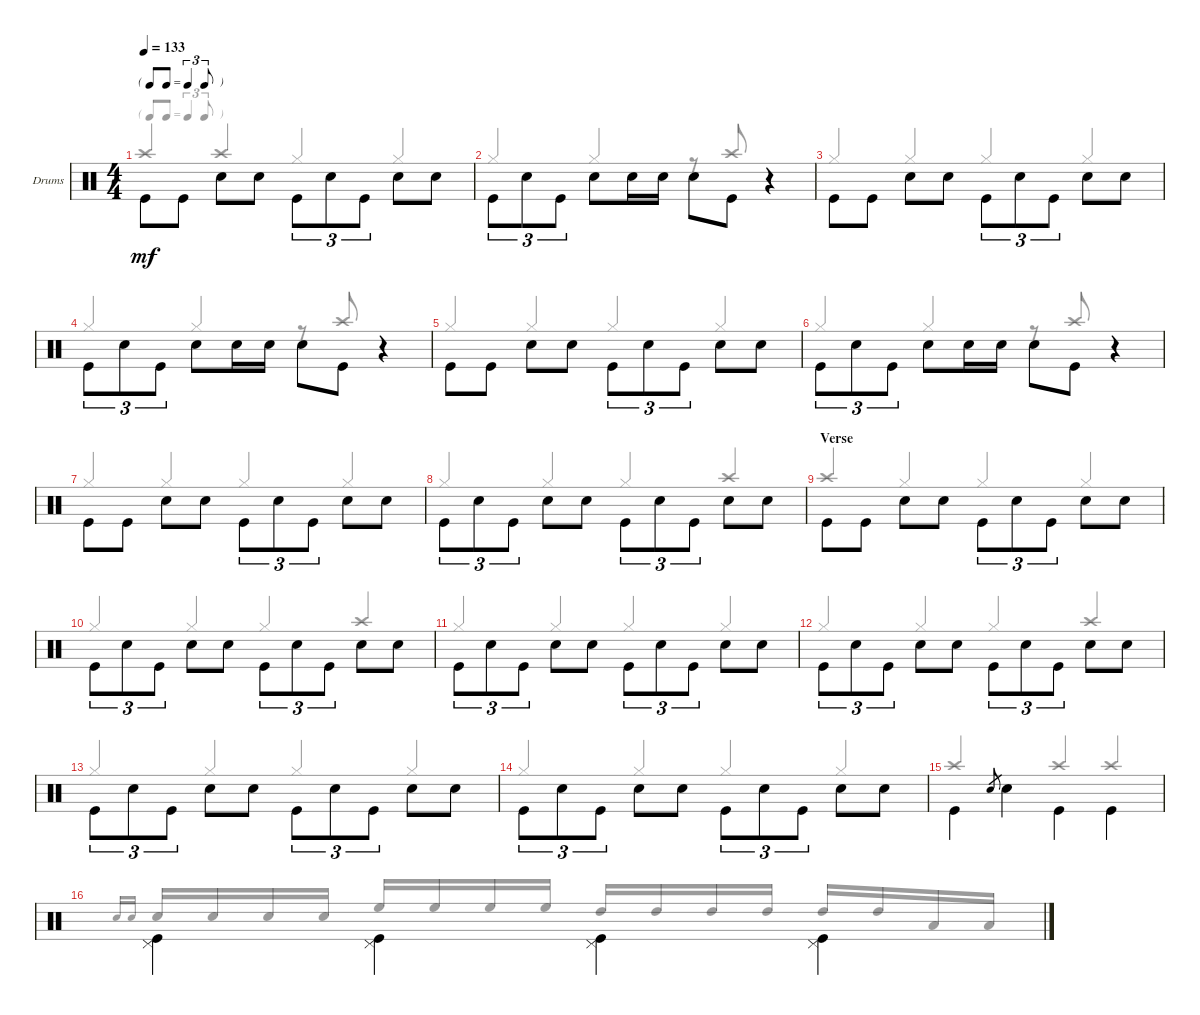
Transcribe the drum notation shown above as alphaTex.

\defaultSystemsLayout 4
\bracketExtendMode groupsimilarinstruments
\firstSystemTrackNameOrientation horizontal
\otherSystemsTrackNameOrientation horizontal
\track ("PETER CRISS" "Drums") {solo instrument percussion}
\staff {score}
\articulation defaults
\voice
\ts (4 4)
\tf triplet8th
\tempo 133
\clef neutral
\ks c "Kick (hit)".8{dy mf beam invert} "Kick (hit)".8 "Snare (hit) 2".8{beam invert} "Snare (hit) 2".8 "Kick (hit)".8{tu (3 2) beam invert} "Snare (hit) 2".8{tu (3 2)} "Kick (hit)".8{tu (3 2)} "Snare (hit) 2".8{beam invert} "Snare (hit) 2".8
|
"Kick (hit)".8{tu (3 2) beam invert} "Snare (hit) 2".8{tu (3 2)} "Kick (hit)".8{tu (3 2)} "Snare (hit) 2".8{beam invert} "Snare (hit) 2".16 "Snare (hit) 2".16 "Snare (hit) 2".8{beam invert} "Kick (hit)".8 r.4 |
"Kick (hit)".8{beam invert} "Kick (hit)".8 "Snare (hit) 2".8{beam invert} "Snare (hit) 2".8 "Kick (hit)".8{tu (3 2) beam invert} "Snare (hit) 2".8{tu (3 2)} "Kick (hit)".8{tu (3 2)} "Snare (hit) 2".8{beam invert} "Snare (hit) 2".8 |
"Kick (hit)".8{tu (3 2) beam invert} "Snare (hit) 2".8{tu (3 2)} "Kick (hit)".8{tu (3 2)} "Snare (hit) 2".8{beam invert} "Snare (hit) 2".16 "Snare (hit) 2".16 "Snare (hit) 2".8{beam invert} "Kick (hit)".8 r.4 |
"Kick (hit)".8{beam invert} "Kick (hit)".8 "Snare (hit) 2".8{beam invert} "Snare (hit) 2".8 "Kick (hit)".8{tu (3 2) beam invert} "Snare (hit) 2".8{tu (3 2)} "Kick (hit)".8{tu (3 2)} "Snare (hit) 2".8{beam invert} "Snare (hit) 2".8 |
"Kick (hit)".8{tu (3 2) beam invert} "Snare (hit) 2".8{tu (3 2)} "Kick (hit)".8{tu (3 2)} "Snare (hit) 2".8{beam invert} "Snare (hit) 2".16 "Snare (hit) 2".16 "Snare (hit) 2".8{beam invert} "Kick (hit)".8 r.4 |
"Kick (hit)".8{beam invert} "Kick (hit)".8 "Snare (hit) 2".8{beam invert} "Snare (hit) 2".8 "Kick (hit)".8{tu (3 2) beam invert} "Snare (hit) 2".8{tu (3 2)} "Kick (hit)".8{tu (3 2)} "Snare (hit) 2".8{beam invert} "Snare (hit) 2".8 |
"Kick (hit)".8{tu (3 2) beam invert} "Snare (hit) 2".8{tu (3 2)} "Kick (hit)".8{tu (3 2)} "Snare (hit) 2".8{beam invert} "Snare (hit) 2".8 "Kick (hit)".8{tu (3 2) beam invert} "Snare (hit) 2".8{tu (3 2)} "Kick (hit)".8{tu (3 2)} "Snare (hit) 2".8{beam invert} "Snare (hit) 2".8 |
\section ("" "Verse")
"Kick (hit)".8{beam invert} "Kick (hit)".8 "Snare (hit) 2".8{beam invert} "Snare (hit) 2".8 "Kick (hit)".8{tu (3 2) beam invert} "Snare (hit) 2".8{tu (3 2)} "Kick (hit)".8{tu (3 2)} "Snare (hit) 2".8{beam invert} "Snare (hit) 2".8 |
"Kick (hit)".8{tu (3 2) beam invert} "Snare (hit) 2".8{tu (3 2)} "Kick (hit)".8{tu (3 2)} "Snare (hit) 2".8{beam invert} "Snare (hit) 2".8 "Kick (hit)".8{tu (3 2) beam invert} "Snare (hit) 2".8{tu (3 2)} "Kick (hit)".8{tu (3 2)} "Snare (hit) 2".8{beam invert} "Snare (hit) 2".8 |
"Kick (hit)".8{tu (3 2) beam invert} "Snare (hit) 2".8{tu (3 2)} "Kick (hit)".8{tu (3 2)} "Snare (hit) 2".8{beam invert} "Snare (hit) 2".8 "Kick (hit)".8{tu (3 2) beam invert} "Snare (hit) 2".8{tu (3 2)} "Kick (hit)".8{tu (3 2)} "Snare (hit) 2".8{beam invert} "Snare (hit) 2".8 |
"Kick (hit)".8{tu (3 2) beam invert} "Snare (hit) 2".8{tu (3 2)} "Kick (hit)".8{tu (3 2)} "Snare (hit) 2".8{beam invert} "Snare (hit) 2".8 "Kick (hit)".8{tu (3 2) beam invert} "Snare (hit) 2".8{tu (3 2)} "Kick (hit)".8{tu (3 2)} "Snare (hit) 2".8{beam invert} "Snare (hit) 2".8 |
"Kick (hit)".8{tu (3 2) beam invert} "Snare (hit) 2".8{tu (3 2)} "Kick (hit)".8{tu (3 2)} "Snare (hit) 2".8{beam invert} "Snare (hit) 2".8 "Kick (hit)".8{tu (3 2) beam invert} "Snare (hit) 2".8{tu (3 2)} "Kick (hit)".8{tu (3 2)} "Snare (hit) 2".8{beam invert} "Snare (hit) 2".8 |
"Kick (hit)".8{tu (3 2) beam invert} "Snare (hit) 2".8{tu (3 2)} "Kick (hit)".8{tu (3 2)} "Snare (hit) 2".8{beam invert} "Snare (hit) 2".8 "Kick (hit)".8{tu (3 2) beam invert} "Snare (hit) 2".8{tu (3 2)} "Kick (hit)".8{tu (3 2)} "Snare (hit) 2".8{beam invert} "Snare (hit) 2".8 |
"Kick (hit)".4{beam invert} "Snare (hit) 2".8{gr} "Snare (hit) 2".4{beam invert} "Kick (hit)".4{beam invert} "Kick (hit)".4{beam invert} |
("Kick (hit)" "Pedal Hi-Hat (hit)").4{beam invert} ("Kick (hit)" "Pedal Hi-Hat (hit)").4{beam invert} ("Kick (hit)" "Pedal Hi-Hat (hit)").4{beam invert} ("Kick (hit)" "Pedal Hi-Hat (hit)").4{beam invert}
\voice
\clef neutral
\ottava regular
\simile none
\ks c "Crash high (hit)".4{dy mf beam invert} "Crash high (hit)".4{beam invert} "Hi-Hat (closed)".4{beam invert} "Hi-Hat (closed)".4{beam invert}
|
"Hi-Hat (closed)".4{beam invert} "Hi-Hat (closed)".4{beam invert} r.8{beam invert} "Crash high (hit)".8{beam invert} r.4 |
"Hi-Hat (closed)".4{beam invert} "Hi-Hat (closed)".4{beam invert} "Hi-Hat (closed)".4{beam invert} "Hi-Hat (closed)".4{beam invert} |
"Hi-Hat (closed)".4{beam invert} "Hi-Hat (closed)".4{beam invert} r.8{beam invert} "Crash high (hit)".8{beam invert} r.4 |
"Hi-Hat (closed)".4{beam invert} "Hi-Hat (closed)".4{beam invert} "Hi-Hat (closed)".4{beam invert} "Hi-Hat (closed)".4{beam invert} |
"Hi-Hat (closed)".4{beam invert} "Hi-Hat (closed)".4{beam invert} r.8{beam invert} "Crash high (hit)".8{beam invert} r.4 |
"Hi-Hat (closed)".4{beam invert} "Hi-Hat (closed)".4{beam invert} "Hi-Hat (closed)".4{beam invert} "Hi-Hat (closed)".4{beam invert} |
"Hi-Hat (closed)".4{beam invert} "Hi-Hat (closed)".4{beam invert} "Hi-Hat (closed)".4{beam invert} "Crash high (hit)".4{beam invert} |
"Crash high (hit)".4{beam invert} "Hi-Hat (closed)".4{beam invert} "Hi-Hat (closed)".4{beam invert} "Hi-Hat (closed)".4{beam invert} |
"Hi-Hat (closed)".4{beam invert} "Hi-Hat (closed)".4{beam invert} "Hi-Hat (closed)".4{beam invert} "Crash high (hit)".4{beam invert} |
"Hi-Hat (closed)".4{beam invert} "Hi-Hat (closed)".4{beam invert} "Hi-Hat (closed)".4{beam invert} "Hi-Hat (closed)".4{beam invert} |
"Hi-Hat (closed)".4{beam invert} "Hi-Hat (closed)".4{beam invert} "Hi-Hat (closed)".4{beam invert} "Crash high (hit)".4{beam invert} |
"Hi-Hat (closed)".4{beam invert} "Hi-Hat (closed)".4{beam invert} "Hi-Hat (closed)".4{beam invert} "Hi-Hat (closed)".4{beam invert} |
"Hi-Hat (closed)".4{beam invert} "Hi-Hat (closed)".4{beam invert} "Hi-Hat (closed)".4{beam invert} "Hi-Hat (closed)".4{beam invert} |
"Crash high (hit)".2{beam invert} "Crash high (hit)".4{beam invert} "Crash high (hit)".4{beam invert} |
"Snare (hit) 2".16{gr onbeat} "Snare (hit) 2".16{gr onbeat beam invert} "Snare (hit) 2".16{beam invert} "Snare (hit) 2".16 "Snare (hit) 2".16 "Snare (hit) 2".16 "High Floor Tom (hit)".16{beam invert} "High Floor Tom (hit)".16 "High Floor Tom (hit)".16 "High Floor Tom (hit)".16 "High Tom (hit)".16{beam invert} "High Tom (hit)".16 "High Tom (hit)".16 "High Tom (hit)".16 "High Tom (hit)".16{beam invert} "High Tom (hit)".16 "Low Tom (hit)".16 "Low Tom (hit)".16
